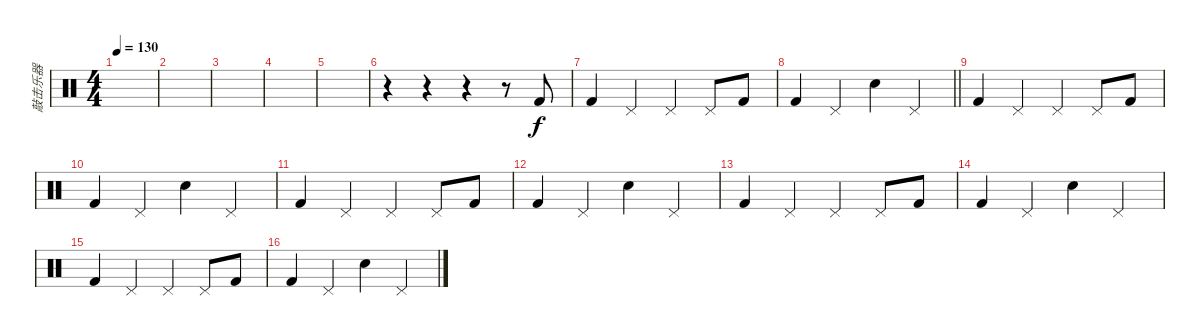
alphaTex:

\track ("敲击乐器" "敲击乐器") {instrument percussion}
\staff {score}
\articulation defaults
\ts (4 4)
\tempo 130
\clef neutral
\ks c
|
|
|
|
|
r.4 r.4 r.4 r.8 "Kick (hit) 2".8 |
"Kick (hit) 2".4 "Pedal Hi-Hat (hit)".4 "Pedal Hi-Hat (hit)".4 "Pedal Hi-Hat (hit)".8 "Kick (hit) 2".8 |
\barLineRight lightlight "Kick (hit) 2".4 "Pedal Hi-Hat (hit)".4 "Snare (hit) 2".4 "Pedal Hi-Hat (hit)".4
|
"Kick (hit) 2".4 "Pedal Hi-Hat (hit)".4 "Pedal Hi-Hat (hit)".4 "Pedal Hi-Hat (hit)".8 "Kick (hit) 2".8 |
"Kick (hit) 2".4 "Pedal Hi-Hat (hit)".4 "Snare (hit) 2".4 "Pedal Hi-Hat (hit)".4 |
"Kick (hit) 2".4 "Pedal Hi-Hat (hit)".4 "Pedal Hi-Hat (hit)".4 "Pedal Hi-Hat (hit)".8 "Kick (hit) 2".8 |
"Kick (hit) 2".4 "Pedal Hi-Hat (hit)".4 "Snare (hit) 2".4 "Pedal Hi-Hat (hit)".4 |
"Kick (hit) 2".4 "Pedal Hi-Hat (hit)".4 "Pedal Hi-Hat (hit)".4 "Pedal Hi-Hat (hit)".8 "Kick (hit) 2".8 |
"Kick (hit) 2".4 "Pedal Hi-Hat (hit)".4 "Snare (hit) 2".4 "Pedal Hi-Hat (hit)".4 |
"Kick (hit) 2".4 "Pedal Hi-Hat (hit)".4 "Pedal Hi-Hat (hit)".4 "Pedal Hi-Hat (hit)".8 "Kick (hit) 2".8 |
"Kick (hit) 2".4 "Pedal Hi-Hat (hit)".4 "Snare (hit) 2".4 "Pedal Hi-Hat (hit)".4
